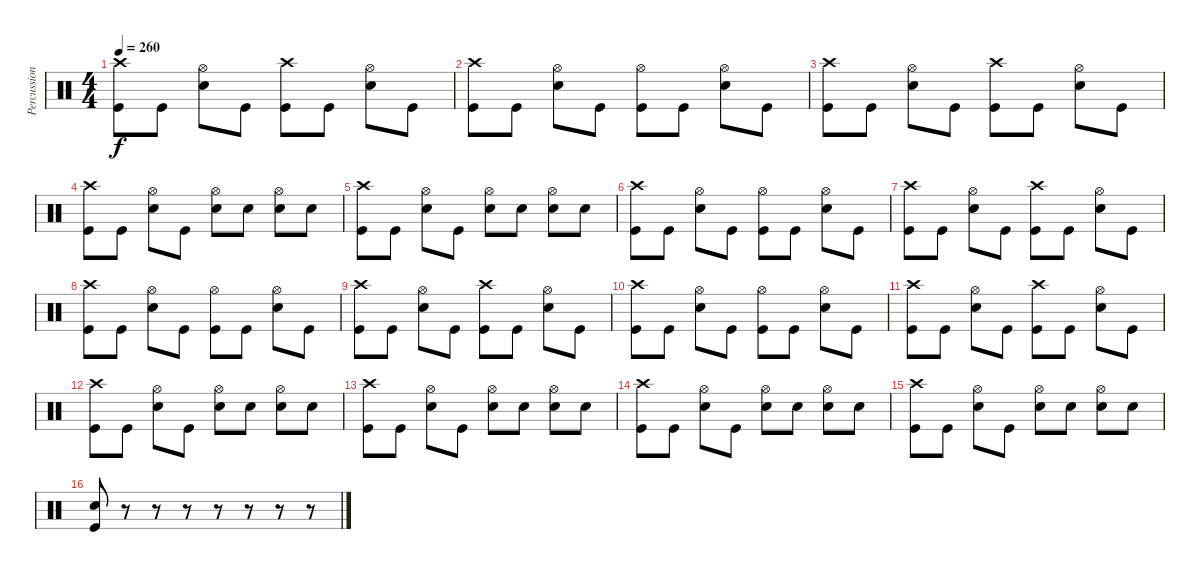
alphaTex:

\track ("Percussion" "Percussion") {instrument percussion}
\staff {score}
\articulation defaults
\ts (4 4)
\tempo 260
\clef neutral
\ks c
("Crash high (hit)" "Kick (hit)").8{dy f} "Kick (hit)".8 ("Hi-Hat (open)" "Snare (hit) 2").8 "Kick (hit)".8 ("Crash high (hit)" "Kick (hit)").8 "Kick (hit)".8 ("Hi-Hat (open)" "Snare (hit) 2").8 "Kick (hit)".8 |
("Crash high (hit)" "Kick (hit)").8 "Kick (hit)".8 ("Hi-Hat (open)" "Snare (hit) 2").8 "Kick (hit)".8 ("Hi-Hat (open)" "Kick (hit)").8 "Kick (hit)".8 ("Hi-Hat (open)" "Snare (hit) 2").8 "Kick (hit)".8 |
("Crash high (hit)" "Kick (hit)").8 "Kick (hit)".8 ("Hi-Hat (open)" "Snare (hit) 2").8 "Kick (hit)".8 ("Crash high (hit)" "Kick (hit)").8 "Kick (hit)".8 ("Hi-Hat (open)" "Snare (hit) 2").8 "Kick (hit)".8 |
("Crash high (hit)" "Kick (hit)").8 "Kick (hit)".8 ("Hi-Hat (open)" "Snare (hit) 2").8 "Kick (hit)".8 ("Hi-Hat (open)" "Snare (hit) 2").8 "Snare (hit) 2".8 ("Hi-Hat (open)" "Snare (hit) 2").8 "Snare (hit) 2".8 |
("Crash high (hit)" "Kick (hit)").8 "Kick (hit)".8 ("Hi-Hat (open)" "Snare (hit) 2").8 "Kick (hit)".8 ("Hi-Hat (open)" "Snare (hit) 2").8 "Snare (hit) 2".8 ("Hi-Hat (open)" "Snare (hit) 2").8 "Snare (hit) 2".8 |
("Crash high (hit)" "Kick (hit)").8 "Kick (hit)".8 ("Hi-Hat (open)" "Snare (hit) 2").8 "Kick (hit)".8 ("Hi-Hat (open)" "Kick (hit)").8 "Kick (hit)".8 ("Hi-Hat (open)" "Snare (hit) 2").8 "Kick (hit)".8 |
("Crash high (hit)" "Kick (hit)").8 "Kick (hit)".8 ("Hi-Hat (open)" "Snare (hit) 2").8 "Kick (hit)".8 ("Crash high (hit)" "Kick (hit)").8 "Kick (hit)".8 ("Hi-Hat (open)" "Snare (hit) 2").8 "Kick (hit)".8 |
("Crash high (hit)" "Kick (hit)").8 "Kick (hit)".8 ("Hi-Hat (open)" "Snare (hit) 2").8 "Kick (hit)".8 ("Hi-Hat (open)" "Kick (hit)").8 "Kick (hit)".8 ("Hi-Hat (open)" "Snare (hit) 2").8 "Kick (hit)".8 |
("Crash high (hit)" "Kick (hit)").8 "Kick (hit)".8 ("Hi-Hat (open)" "Snare (hit) 2").8 "Kick (hit)".8 ("Crash high (hit)" "Kick (hit)").8 "Kick (hit)".8 ("Hi-Hat (open)" "Snare (hit) 2").8 "Kick (hit)".8 |
("Crash high (hit)" "Kick (hit)").8 "Kick (hit)".8 ("Hi-Hat (open)" "Snare (hit) 2").8 "Kick (hit)".8 ("Hi-Hat (open)" "Kick (hit)").8 "Kick (hit)".8 ("Hi-Hat (open)" "Snare (hit) 2").8 "Kick (hit)".8 |
("Crash high (hit)" "Kick (hit)").8 "Kick (hit)".8 ("Hi-Hat (open)" "Snare (hit) 2").8 "Kick (hit)".8 ("Crash high (hit)" "Kick (hit)").8 "Kick (hit)".8 ("Hi-Hat (open)" "Snare (hit) 2").8 "Kick (hit)".8 |
("Crash high (hit)" "Kick (hit)").8 "Kick (hit)".8 ("Hi-Hat (open)" "Snare (hit) 2").8 "Kick (hit)".8 ("Hi-Hat (open)" "Snare (hit) 2").8 "Snare (hit) 2".8 ("Hi-Hat (open)" "Snare (hit) 2").8 "Snare (hit) 2".8 |
("Crash high (hit)" "Kick (hit)").8 "Kick (hit)".8 ("Hi-Hat (open)" "Snare (hit) 2").8 "Kick (hit)".8 ("Hi-Hat (open)" "Snare (hit) 2").8 "Snare (hit) 2".8 ("Hi-Hat (open)" "Snare (hit) 2").8 "Snare (hit) 2".8 |
("Crash high (hit)" "Kick (hit)").8 "Kick (hit)".8 ("Hi-Hat (open)" "Snare (hit) 2").8 "Kick (hit)".8 ("Hi-Hat (open)" "Snare (hit) 2").8 "Snare (hit) 2".8 ("Hi-Hat (open)" "Snare (hit) 2").8 "Snare (hit) 2".8 |
("Crash high (hit)" "Kick (hit)").8 "Kick (hit)".8 ("Hi-Hat (open)" "Snare (hit) 2").8 "Kick (hit)".8 ("Hi-Hat (open)" "Snare (hit) 2").8 "Snare (hit) 2".8 ("Hi-Hat (open)" "Snare (hit) 2").8 "Snare (hit) 2".8 |
("Snare (hit) 2" "Kick (hit)").8 r.8 r.8 r.8 r.8 r.8 r.8 r.8
